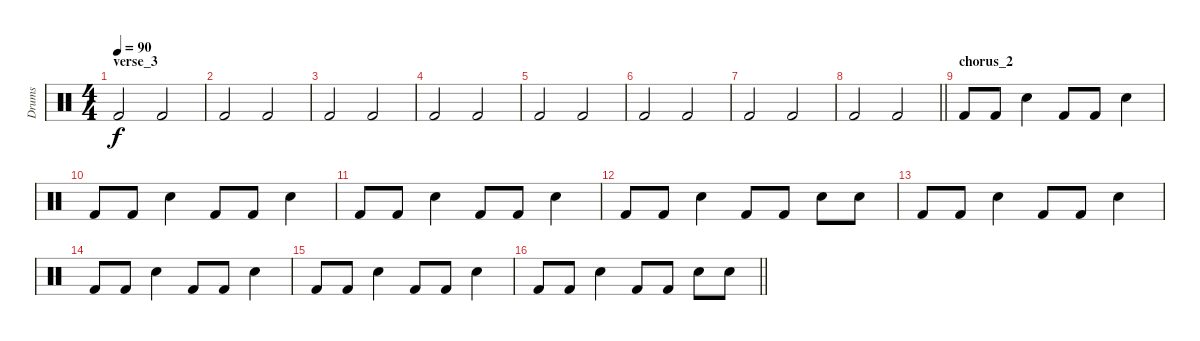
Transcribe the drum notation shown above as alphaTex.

\track ("Drums" "Drums") {instrument percussion}
\staff {score}
\articulation defaults
\ts (4 4)
\section ("" "verse_3")
\tempo 90
\clef neutral
\ks c "Kick (hit) 2".2{dy f} "Kick (hit) 2".2
|
"Kick (hit) 2".2 "Kick (hit) 2".2 |
"Kick (hit) 2".2 "Kick (hit) 2".2 |
"Kick (hit) 2".2 "Kick (hit) 2".2 |
"Kick (hit) 2".2 "Kick (hit) 2".2 |
"Kick (hit) 2".2 "Kick (hit) 2".2 |
"Kick (hit) 2".2 "Kick (hit) 2".2 |
\barLineRight lightlight "Kick (hit) 2".2 "Kick (hit) 2".2
|
\section ("" "chorus_2")
"Kick (hit) 2".8 "Kick (hit) 2".8 "Electric Snare (hit)".4 "Kick (hit) 2".8 "Kick (hit) 2".8 "Electric Snare (hit)".4 |
"Kick (hit) 2".8 "Kick (hit) 2".8 "Electric Snare (hit)".4 "Kick (hit) 2".8 "Kick (hit) 2".8 "Electric Snare (hit)".4 |
"Kick (hit) 2".8 "Kick (hit) 2".8 "Electric Snare (hit)".4 "Kick (hit) 2".8 "Kick (hit) 2".8 "Electric Snare (hit)".4 |
"Kick (hit) 2".8 "Kick (hit) 2".8 "Electric Snare (hit)".4 "Kick (hit) 2".8 "Kick (hit) 2".8 "Electric Snare (hit)".8 "Snare (hit) 2".8 |
"Kick (hit) 2".8 "Kick (hit) 2".8 "Electric Snare (hit)".4 "Kick (hit) 2".8 "Kick (hit) 2".8 "Electric Snare (hit)".4 |
"Kick (hit) 2".8 "Kick (hit) 2".8 "Electric Snare (hit)".4 "Kick (hit) 2".8 "Kick (hit) 2".8 "Electric Snare (hit)".4 |
"Kick (hit) 2".8 "Kick (hit) 2".8 "Electric Snare (hit)".4 "Kick (hit) 2".8 "Kick (hit) 2".8 "Electric Snare (hit)".4 |
\barLineRight lightlight "Kick (hit) 2".8 "Kick (hit) 2".8 "Electric Snare (hit)".4 "Kick (hit) 2".8 "Kick (hit) 2".8 "Electric Snare (hit)".8 "Snare (hit) 2".8
